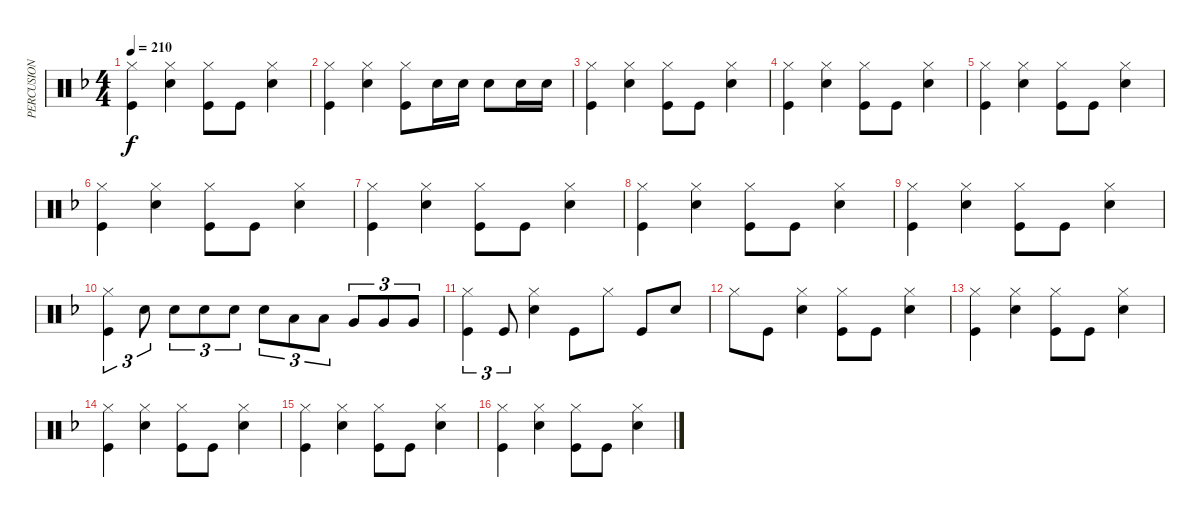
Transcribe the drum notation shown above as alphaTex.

\track ("PERCUSION" "PERCUSION") {instrument percussion}
\staff {score}
\articulation defaults
\ts (4 4)
\tempo 210
\clef neutral
\ks f
("Hi-Hat (closed)" "Kick (hit)").4{dy f} ("Hi-Hat (closed)" "Snare (hit) 2").4 ("Hi-Hat (closed)" "Kick (hit)").8 "Kick (hit)".8 ("Hi-Hat (closed)" "Snare (hit) 2").4 |
("Hi-Hat (closed)" "Kick (hit)").4 ("Hi-Hat (closed)" "Snare (hit) 2").4 ("Hi-Hat (closed)" "Kick (hit)").8 "Snare (hit) 2".16 "Snare (hit) 2".16 "Snare (hit) 2".8 "Snare (hit) 2".16 "Snare (hit) 2".16 |
("Hi-Hat (closed)" "Kick (hit)").4 ("Hi-Hat (closed)" "Snare (hit) 2").4 ("Hi-Hat (closed)" "Kick (hit)").8 "Kick (hit)".8 ("Hi-Hat (closed)" "Snare (hit) 2").4 |
("Hi-Hat (closed)" "Kick (hit)").4 ("Hi-Hat (closed)" "Snare (hit) 2").4 ("Hi-Hat (closed)" "Kick (hit)").8 "Kick (hit)".8 ("Hi-Hat (closed)" "Snare (hit) 2").4 |
("Hi-Hat (closed)" "Kick (hit)").4 ("Hi-Hat (closed)" "Snare (hit) 2").4 ("Hi-Hat (closed)" "Kick (hit)").8 "Kick (hit)".8 ("Hi-Hat (closed)" "Snare (hit) 2").4 |
("Hi-Hat (closed)" "Kick (hit)").4 ("Hi-Hat (closed)" "Snare (hit) 2").4 ("Hi-Hat (closed)" "Kick (hit)").8 "Kick (hit)".8 ("Hi-Hat (closed)" "Snare (hit) 2").4 |
("Hi-Hat (closed)" "Kick (hit)").4 ("Hi-Hat (closed)" "Snare (hit) 2").4 ("Hi-Hat (closed)" "Kick (hit)").8 "Kick (hit)".8 ("Hi-Hat (closed)" "Snare (hit) 2").4 |
("Hi-Hat (closed)" "Kick (hit)").4 ("Hi-Hat (closed)" "Snare (hit) 2").4 ("Hi-Hat (closed)" "Kick (hit)").8 "Kick (hit)".8 ("Hi-Hat (closed)" "Snare (hit) 2").4 |
("Hi-Hat (closed)" "Kick (hit)").4 ("Hi-Hat (closed)" "Snare (hit) 2").4 ("Hi-Hat (closed)" "Kick (hit)").8 "Kick (hit)".8 ("Hi-Hat (closed)" "Snare (hit) 2").4 |
("Hi-Hat (closed)" "Kick (hit)").4{tu (3 2)} "Snare (hit) 2".8{tu (3 2)} "Snare (hit) 2".8{tu (3 2)} "Snare (hit) 2".8{tu (3 2)} "Snare (hit) 2".8{tu (3 2)} "Snare (hit) 2".8{tu (3 2)} "Low Tom (hit)".8{tu (3 2)} "Low Tom (hit)".8{tu (3 2)} "Very Low Tom (hit)".8{tu (3 2)} "Very Low Tom (hit)".8{tu (3 2)} "Very Low Tom (hit)".8{tu (3 2)} |
("Hi-Hat (closed)" "Kick (hit)").4{tu (3 2)} "Kick (hit)".8{tu (3 2)} ("Hi-Hat (closed)" "Snare (hit) 2").4 "Kick (hit)".8 "Hi-Hat (closed)".8 "Kick (hit)".8 "Snare (hit) 2".8 |
"Hi-Hat (closed)".8 "Kick (hit)".8 ("Hi-Hat (closed)" "Snare (hit) 2").4 ("Hi-Hat (closed)" "Kick (hit)").8 "Kick (hit)".8 ("Hi-Hat (closed)" "Snare (hit) 2").4 |
("Hi-Hat (closed)" "Kick (hit)").4 ("Hi-Hat (closed)" "Snare (hit) 2").4 ("Hi-Hat (closed)" "Kick (hit)").8 "Kick (hit)".8 ("Hi-Hat (closed)" "Snare (hit) 2").4 |
("Hi-Hat (closed)" "Kick (hit)").4 ("Hi-Hat (closed)" "Snare (hit) 2").4 ("Hi-Hat (closed)" "Kick (hit)").8 "Kick (hit)".8 ("Hi-Hat (closed)" "Snare (hit) 2").4 |
("Hi-Hat (closed)" "Kick (hit)").4 ("Hi-Hat (closed)" "Snare (hit) 2").4 ("Hi-Hat (closed)" "Kick (hit)").8 "Kick (hit)".8 ("Hi-Hat (closed)" "Snare (hit) 2").4 |
("Hi-Hat (closed)" "Kick (hit)").4 ("Hi-Hat (closed)" "Snare (hit) 2").4 ("Hi-Hat (closed)" "Kick (hit)").8 "Kick (hit)".8 ("Hi-Hat (closed)" "Snare (hit) 2").4
